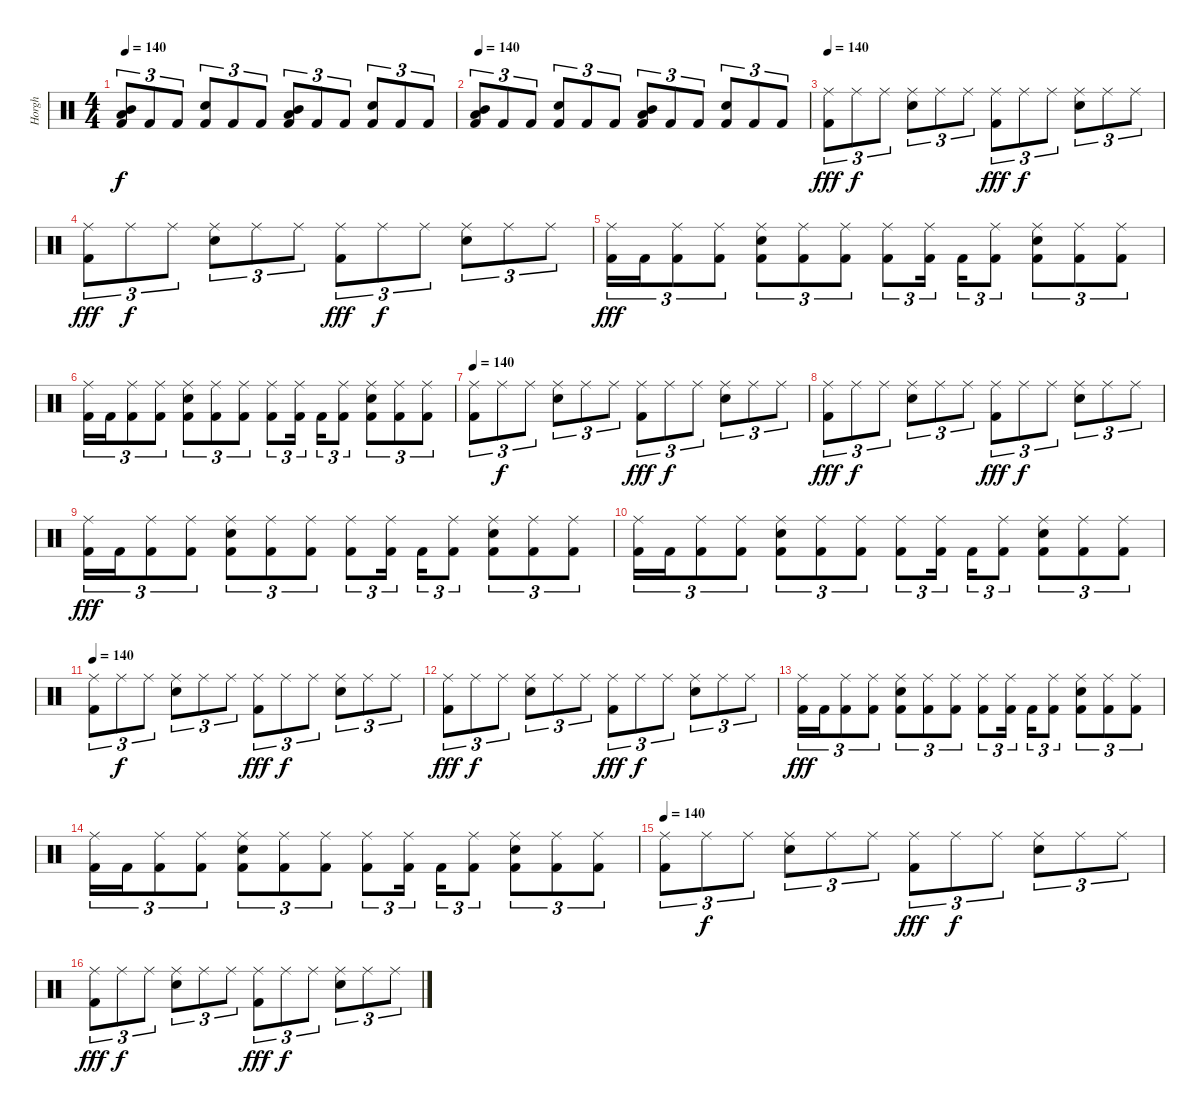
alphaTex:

\track ("Horgh" "Horgh") {instrument percussion}
\staff {score}
\articulation defaults
\ts (4 4)
\tempo 140
\clef neutral
\ks c
("Low Tom (hit)" "Mid Tom (hit)" "Kick (hit) 2").8{tu (3 2) dy f} "Kick (hit) 2".8{tu (3 2)} "Kick (hit) 2".8{tu (3 2)} ("Electric Snare (hit)" "Kick (hit) 2").8{tu (3 2)} "Kick (hit) 2".8{tu (3 2)} "Kick (hit) 2".8{tu (3 2)} ("Low Tom (hit)" "Mid Tom (hit)" "Kick (hit) 2").8{tu (3 2)} "Kick (hit) 2".8{tu (3 2)} "Kick (hit) 2".8{tu (3 2)} ("Electric Snare (hit)" "Kick (hit) 2").8{tu (3 2)} "Kick (hit) 2".8{tu (3 2)} "Kick (hit) 2".8{tu (3 2)} |
\tempo 140
("Low Tom (hit)" "Mid Tom (hit)" "Kick (hit) 2").8{tu (3 2)} "Kick (hit) 2".8{tu (3 2)} "Kick (hit) 2".8{tu (3 2)} ("Electric Snare (hit)" "Kick (hit) 2").8{tu (3 2)} "Kick (hit) 2".8{tu (3 2)} "Kick (hit) 2".8{tu (3 2)} ("Low Tom (hit)" "Mid Tom (hit)" "Kick (hit) 2").8{tu (3 2)} "Kick (hit) 2".8{tu (3 2)} "Kick (hit) 2".8{tu (3 2)} ("Electric Snare (hit)" "Kick (hit) 2").8{tu (3 2)} "Kick (hit) 2".8{tu (3 2)} "Kick (hit) 2".8{tu (3 2)} |
\tempo 140
("Ride (middle)" "Kick (hit) 2").8{tu (3 2) dy fff} "Ride (middle)".8{tu (3 2) dy f} "Ride (middle)".8{tu (3 2)} ("Ride (middle)" "Electric Snare (hit)").8{tu (3 2)} "Ride (middle)".8{tu (3 2)} "Ride (middle)".8{tu (3 2)} ("Ride (middle)" "Kick (hit) 2").8{tu (3 2) dy fff} "Ride (middle)".8{tu (3 2) dy f} "Ride (middle)".8{tu (3 2)} ("Ride (middle)" "Electric Snare (hit)").8{tu (3 2)} "Ride (middle)".8{tu (3 2)} "Ride (middle)".8{tu (3 2)} |
("Ride (middle)" "Kick (hit) 2").8{tu (3 2) dy fff} "Ride (middle)".8{tu (3 2) dy f} "Ride (middle)".8{tu (3 2)} ("Ride (middle)" "Electric Snare (hit)").8{tu (3 2)} "Ride (middle)".8{tu (3 2)} "Ride (middle)".8{tu (3 2)} ("Ride (middle)" "Kick (hit) 2").8{tu (3 2) dy fff} "Ride (middle)".8{tu (3 2) dy f} "Ride (middle)".8{tu (3 2)} ("Ride (middle)" "Electric Snare (hit)").8{tu (3 2)} "Ride (middle)".8{tu (3 2)} "Ride (middle)".8{tu (3 2)} |
("Ride (middle)" "Kick (hit) 2").16{tu (3 2) dy fff} "Kick (hit) 2".16{tu (3 2)} ("Ride (middle)" "Kick (hit) 2").8{tu (3 2)} ("Ride (middle)" "Kick (hit) 2").8{tu (3 2)} ("Ride (middle)" "Electric Snare (hit)" "Kick (hit) 2").8{tu (3 2)} ("Ride (middle)" "Kick (hit) 2").8{tu (3 2)} ("Ride (middle)" "Kick (hit) 2").8{tu (3 2)} ("Ride (middle)" "Kick (hit) 2").8{tu (3 2)} ("Ride (middle)" "Kick (hit) 2").16{tu (3 2)} "Kick (hit) 2".16{tu (3 2)} ("Ride (middle)" "Kick (hit) 2").8{tu (3 2)} ("Ride (middle)" "Electric Snare (hit)" "Kick (hit) 2").8{tu (3 2)} ("Ride (middle)" "Kick (hit) 2").8{tu (3 2)} ("Ride (middle)" "Kick (hit) 2").8{tu (3 2)} |
("Ride (middle)" "Kick (hit) 2").16{tu (3 2)} "Kick (hit) 2".16{tu (3 2)} ("Ride (middle)" "Kick (hit) 2").8{tu (3 2)} ("Ride (middle)" "Kick (hit) 2").8{tu (3 2)} ("Ride (middle)" "Electric Snare (hit)" "Kick (hit) 2").8{tu (3 2)} ("Ride (middle)" "Kick (hit) 2").8{tu (3 2)} ("Ride (middle)" "Kick (hit) 2").8{tu (3 2)} ("Ride (middle)" "Kick (hit) 2").8{tu (3 2)} ("Ride (middle)" "Kick (hit) 2").16{tu (3 2)} "Kick (hit) 2".16{tu (3 2)} ("Ride (middle)" "Kick (hit) 2").8{tu (3 2)} ("Ride (middle)" "Electric Snare (hit)" "Kick (hit) 2").8{tu (3 2)} ("Ride (middle)" "Kick (hit) 2").8{tu (3 2)} ("Ride (middle)" "Kick (hit) 2").8{tu (3 2)} |
\tempo 140
("Ride (middle)" "Kick (hit) 2").8{tu (3 2)} "Ride (middle)".8{tu (3 2) dy f} "Ride (middle)".8{tu (3 2)} ("Ride (middle)" "Electric Snare (hit)").8{tu (3 2)} "Ride (middle)".8{tu (3 2)} "Ride (middle)".8{tu (3 2)} ("Ride (middle)" "Kick (hit) 2").8{tu (3 2) dy fff} "Ride (middle)".8{tu (3 2) dy f} "Ride (middle)".8{tu (3 2)} ("Ride (middle)" "Electric Snare (hit)").8{tu (3 2)} "Ride (middle)".8{tu (3 2)} "Ride (middle)".8{tu (3 2)} |
("Ride (middle)" "Kick (hit) 2").8{tu (3 2) dy fff} "Ride (middle)".8{tu (3 2) dy f} "Ride (middle)".8{tu (3 2)} ("Ride (middle)" "Electric Snare (hit)").8{tu (3 2)} "Ride (middle)".8{tu (3 2)} "Ride (middle)".8{tu (3 2)} ("Ride (middle)" "Kick (hit) 2").8{tu (3 2) dy fff} "Ride (middle)".8{tu (3 2) dy f} "Ride (middle)".8{tu (3 2)} ("Ride (middle)" "Electric Snare (hit)").8{tu (3 2)} "Ride (middle)".8{tu (3 2)} "Ride (middle)".8{tu (3 2)} |
("Ride (middle)" "Kick (hit) 2").16{tu (3 2) dy fff} "Kick (hit) 2".16{tu (3 2)} ("Ride (middle)" "Kick (hit) 2").8{tu (3 2)} ("Ride (middle)" "Kick (hit) 2").8{tu (3 2)} ("Ride (middle)" "Electric Snare (hit)" "Kick (hit) 2").8{tu (3 2)} ("Ride (middle)" "Kick (hit) 2").8{tu (3 2)} ("Ride (middle)" "Kick (hit) 2").8{tu (3 2)} ("Ride (middle)" "Kick (hit) 2").8{tu (3 2)} ("Ride (middle)" "Kick (hit) 2").16{tu (3 2)} "Kick (hit) 2".16{tu (3 2)} ("Ride (middle)" "Kick (hit) 2").8{tu (3 2)} ("Ride (middle)" "Electric Snare (hit)" "Kick (hit) 2").8{tu (3 2)} ("Ride (middle)" "Kick (hit) 2").8{tu (3 2)} ("Ride (middle)" "Kick (hit) 2").8{tu (3 2)} |
("Ride (middle)" "Kick (hit) 2").16{tu (3 2)} "Kick (hit) 2".16{tu (3 2)} ("Ride (middle)" "Kick (hit) 2").8{tu (3 2)} ("Ride (middle)" "Kick (hit) 2").8{tu (3 2)} ("Ride (middle)" "Electric Snare (hit)" "Kick (hit) 2").8{tu (3 2)} ("Ride (middle)" "Kick (hit) 2").8{tu (3 2)} ("Ride (middle)" "Kick (hit) 2").8{tu (3 2)} ("Ride (middle)" "Kick (hit) 2").8{tu (3 2)} ("Ride (middle)" "Kick (hit) 2").16{tu (3 2)} "Kick (hit) 2".16{tu (3 2)} ("Ride (middle)" "Kick (hit) 2").8{tu (3 2)} ("Ride (middle)" "Electric Snare (hit)" "Kick (hit) 2").8{tu (3 2)} ("Ride (middle)" "Kick (hit) 2").8{tu (3 2)} ("Ride (middle)" "Kick (hit) 2").8{tu (3 2)} |
\tempo 140
("Ride (middle)" "Kick (hit) 2").8{tu (3 2)} "Ride (middle)".8{tu (3 2) dy f} "Ride (middle)".8{tu (3 2)} ("Ride (middle)" "Electric Snare (hit)").8{tu (3 2)} "Ride (middle)".8{tu (3 2)} "Ride (middle)".8{tu (3 2)} ("Ride (middle)" "Kick (hit) 2").8{tu (3 2) dy fff} "Ride (middle)".8{tu (3 2) dy f} "Ride (middle)".8{tu (3 2)} ("Ride (middle)" "Electric Snare (hit)").8{tu (3 2)} "Ride (middle)".8{tu (3 2)} "Ride (middle)".8{tu (3 2)} |
("Ride (middle)" "Kick (hit) 2").8{tu (3 2) dy fff} "Ride (middle)".8{tu (3 2) dy f} "Ride (middle)".8{tu (3 2)} ("Ride (middle)" "Electric Snare (hit)").8{tu (3 2)} "Ride (middle)".8{tu (3 2)} "Ride (middle)".8{tu (3 2)} ("Ride (middle)" "Kick (hit) 2").8{tu (3 2) dy fff} "Ride (middle)".8{tu (3 2) dy f} "Ride (middle)".8{tu (3 2)} ("Ride (middle)" "Electric Snare (hit)").8{tu (3 2)} "Ride (middle)".8{tu (3 2)} "Ride (middle)".8{tu (3 2)} |
("Ride (middle)" "Kick (hit) 2").16{tu (3 2) dy fff} "Kick (hit) 2".16{tu (3 2)} ("Ride (middle)" "Kick (hit) 2").8{tu (3 2)} ("Ride (middle)" "Kick (hit) 2").8{tu (3 2)} ("Ride (middle)" "Electric Snare (hit)" "Kick (hit) 2").8{tu (3 2)} ("Ride (middle)" "Kick (hit) 2").8{tu (3 2)} ("Ride (middle)" "Kick (hit) 2").8{tu (3 2)} ("Ride (middle)" "Kick (hit) 2").8{tu (3 2)} ("Ride (middle)" "Kick (hit) 2").16{tu (3 2)} "Kick (hit) 2".16{tu (3 2)} ("Ride (middle)" "Kick (hit) 2").8{tu (3 2)} ("Ride (middle)" "Electric Snare (hit)" "Kick (hit) 2").8{tu (3 2)} ("Ride (middle)" "Kick (hit) 2").8{tu (3 2)} ("Ride (middle)" "Kick (hit) 2").8{tu (3 2)} |
("Ride (middle)" "Kick (hit) 2").16{tu (3 2)} "Kick (hit) 2".16{tu (3 2)} ("Ride (middle)" "Kick (hit) 2").8{tu (3 2)} ("Ride (middle)" "Kick (hit) 2").8{tu (3 2)} ("Ride (middle)" "Electric Snare (hit)" "Kick (hit) 2").8{tu (3 2)} ("Ride (middle)" "Kick (hit) 2").8{tu (3 2)} ("Ride (middle)" "Kick (hit) 2").8{tu (3 2)} ("Ride (middle)" "Kick (hit) 2").8{tu (3 2)} ("Ride (middle)" "Kick (hit) 2").16{tu (3 2)} "Kick (hit) 2".16{tu (3 2)} ("Ride (middle)" "Kick (hit) 2").8{tu (3 2)} ("Ride (middle)" "Electric Snare (hit)" "Kick (hit) 2").8{tu (3 2)} ("Ride (middle)" "Kick (hit) 2").8{tu (3 2)} ("Ride (middle)" "Kick (hit) 2").8{tu (3 2)} |
\tempo 140
("Ride (middle)" "Kick (hit) 2").8{tu (3 2)} "Ride (middle)".8{tu (3 2) dy f} "Ride (middle)".8{tu (3 2)} ("Ride (middle)" "Electric Snare (hit)").8{tu (3 2)} "Ride (middle)".8{tu (3 2)} "Ride (middle)".8{tu (3 2)} ("Ride (middle)" "Kick (hit) 2").8{tu (3 2) dy fff} "Ride (middle)".8{tu (3 2) dy f} "Ride (middle)".8{tu (3 2)} ("Ride (middle)" "Electric Snare (hit)").8{tu (3 2)} "Ride (middle)".8{tu (3 2)} "Ride (middle)".8{tu (3 2)} |
("Ride (middle)" "Kick (hit) 2").8{tu (3 2) dy fff} "Ride (middle)".8{tu (3 2) dy f} "Ride (middle)".8{tu (3 2)} ("Ride (middle)" "Electric Snare (hit)").8{tu (3 2)} "Ride (middle)".8{tu (3 2)} "Ride (middle)".8{tu (3 2)} ("Ride (middle)" "Kick (hit) 2").8{tu (3 2) dy fff} "Ride (middle)".8{tu (3 2) dy f} "Ride (middle)".8{tu (3 2)} ("Ride (middle)" "Electric Snare (hit)").8{tu (3 2)} "Ride (middle)".8{tu (3 2)} "Ride (middle)".8{tu (3 2)}
